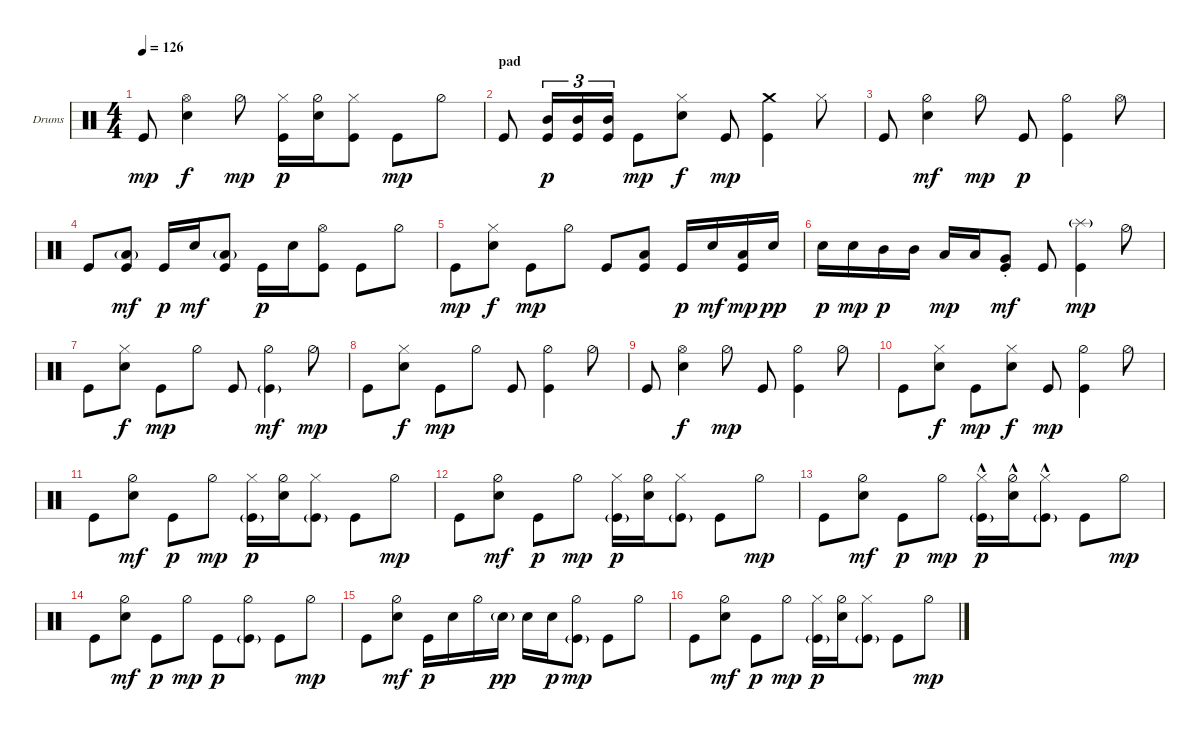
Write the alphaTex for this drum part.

\bracketExtendMode groupsimilarinstruments
\firstSystemTrackNameOrientation horizontal
\otherSystemsTrackNameOrientation horizontal
\track ("drums - john hinch" "Drums") {instrument percussion}
\staff {score}
\articulation defaults
\ts (4 4)
\tempo 126
\clef neutral
\scale
0.333333
\ks c "Kick (hit)".8{dy mp}
("Snare (hit) 2" "Hi-Hat (open)").4{dy f} "Hi-Hat (half)".8{dy mp} ("Kick (hit)" "Hi-Hat (closed)").16{dy p} ("Snare (hit) 2" "Hi-Hat (half)").16 ("Kick (hit)" "Hi-Hat (closed)").8 "Kick (hit)".8{dy mp} "Hi-Hat (half)".8 |
\section ("" "pad")
\scale
0.333333 "Kick (hit)".8 ("Kick (hit)" "Mid Tom (hit)").16{tu (3 2) dy p} ("Kick (hit)" "Mid Tom (hit)").16{tu (3 2)} ("Kick (hit)" "Mid Tom (hit)").16{tu (3 2)} "Kick (hit)".8{dy mp} ("Snare (hit) 2" "Hi-Hat (closed)").8{dy f} "Kick (hit)".8{dy mp} ("Kick (hit)" "Crash medium (hit)").4 "Hi-Hat (closed)".8 |
\scale
0.333333 "Kick (hit)".8 ("Snare (hit) 2" "Hi-Hat (half)").4{dy mf} "Hi-Hat (half)".8{dy mp} "Kick (hit)".8{dy p} ("Hi-Hat (half)" "Kick (hit)").4 "Hi-Hat (open)".8 |
\scale
0.333333 "Kick (hit)".8 ("Low Tom (hit)"{g} "Kick (hit)").8{dy mf} "Kick (hit)".16{dy p} "Snare (hit) 2".16{dy mf} ("Low Tom (hit)"{g} "Kick (hit)").8 "Kick (hit)".16{dy p} "Snare (hit) 2".16 ("Kick (hit)" "Hi-Hat (open)").8 "Kick (hit)".8 "Hi-Hat (half)".8 |
\scale
0.333333 "Kick (hit)".8{dy mp} ("Snare (hit) 2" "Hi-Hat (closed)").8{dy f} "Kick (hit)".8{dy mp} "Hi-Hat (half)".8 "Kick (hit)".8 ("Kick (hit)" "Low Tom (hit)").8 "Kick (hit)".16{dy p} "Snare (hit) 2".16{dy mf} ("Kick (hit)" "Low Tom (hit)").16{dy mp} "Snare (hit) 2".16{dy pp} |
\scale
0.333333 "Snare (hit) 2".16{dy p} "Snare (hit) 2".16{dy mp} "Mid Tom (hit)".16{dy p} "Mid Tom (hit)".16 "Low Tom (hit)".16{dy mp} "Low Tom (hit)".16 ("Kick (hit)" "Very Low Tom (hit)"{st}).8{dy mf} "Kick (hit)".8 ("Kick (hit)" "Splash (hit)"{g}).4{dy mp} "Hi-Hat (half)".8 |
\scale
0.333333 "Kick (hit)".8 ("Snare (hit) 2" "Hi-Hat (closed)").8{dy f} "Kick (hit)".8{dy mp} "Hi-Hat (half)".8 "Kick (hit)".8 ("Hi-Hat (half)" "Kick (hit)"{g}).4{dy mf} "Hi-Hat (half)".8{dy mp} |
\scale
0.333333 "Kick (hit)".8 ("Snare (hit) 2" "Hi-Hat (closed)").8{dy f} "Kick (hit)".8{dy mp} "Hi-Hat (half)".8 "Kick (hit)".8 ("Hi-Hat (half)" "Kick (hit)").4 "Hi-Hat (half)".8 |
\scale
0.333333 "Kick (hit)".8 ("Snare (hit) 2" "Hi-Hat (open)").4{dy f} "Hi-Hat (half)".8{dy mp} "Kick (hit)".8 ("Hi-Hat (half)" "Kick (hit)").4 "Hi-Hat (half)".8 |
\scale
0.333333 "Kick (hit)".8 ("Snare (hit) 2" "Hi-Hat (closed)").8{dy f} "Kick (hit)".8{dy mp} ("Snare (hit) 2" "Hi-Hat (closed)").8{dy f} "Kick (hit)".8{dy mp} ("Hi-Hat (half)" "Kick (hit)").4 "Hi-Hat (half)".8 |
\scale
0.333333 "Kick (hit)".8 ("Snare (hit) 2" "Hi-Hat (half)").8{dy mf} "Kick (hit)".8{dy p} "Hi-Hat (half)".8{dy mp} ("Kick (hit)"{g} "Hi-Hat (closed)").16{dy p} ("Snare (hit) 2" "Hi-Hat (half)").16 ("Kick (hit)"{g} "Hi-Hat (closed)").8 "Kick (hit)".8 "Hi-Hat (half)".8{dy mp} |
\scale
0.333333 "Kick (hit)".8 ("Snare (hit) 2" "Hi-Hat (half)").8{dy mf} "Kick (hit)".8{dy p} "Hi-Hat (half)".8{dy mp} ("Kick (hit)"{g} "Hi-Hat (closed)").16{dy p} ("Snare (hit) 2" "Hi-Hat (half)").16 ("Kick (hit)"{g} "Hi-Hat (closed)").8 "Kick (hit)".8 "Hi-Hat (half)".8{dy mp} |
\scale
0.333333 "Kick (hit)".8 ("Snare (hit) 2" "Hi-Hat (half)").8{dy mf} "Kick (hit)".8{dy p} "Hi-Hat (half)".8{dy mp} ("Kick (hit)"{g} "Hi-Hat (closed)"{hac}).16{dy p} ("Snare (hit) 2" "Hi-Hat (half)"{hac}).16 ("Kick (hit)"{g} "Hi-Hat (closed)"{hac}).8 "Kick (hit)".8 "Hi-Hat (half)".8{dy mp} |
\scale
0.333333 "Kick (hit)".8 ("Snare (hit) 2" "Hi-Hat (half)").8{dy mf} "Kick (hit)".8{dy p} "Hi-Hat (half)".8{dy mp} "Kick (hit)".8{dy p} ("Kick (hit)"{g} "Hi-Hat (half)").8 "Kick (hit)".8 "Hi-Hat (half)".8{dy mp} |
\scale
0.333333 "Kick (hit)".8 ("Snare (hit) 2" "Hi-Hat (half)").8{dy mf} "Kick (hit)".16{dy p} "Snare (hit) 2".16 "Hi-Hat (half)".16 "Snare (hit) 2"{g}.16{dy pp} "Snare (hit) 2".16 "Snare (hit) 2".16{dy p} ("Kick (hit)"{g} "Hi-Hat (half)").8{dy mp} "Kick (hit)".8 "Hi-Hat (half)".8 |
\scale
0.333333 "Kick (hit)".8 ("Snare (hit) 2" "Hi-Hat (half)").8{dy mf} "Kick (hit)".8{dy p} "Hi-Hat (half)".8{dy mp} ("Kick (hit)"{g} "Hi-Hat (closed)").16{dy p} ("Snare (hit) 2" "Hi-Hat (half)").16 ("Kick (hit)"{g} "Hi-Hat (closed)").8 "Kick (hit)".8 "Hi-Hat (half)".8{dy mp}
